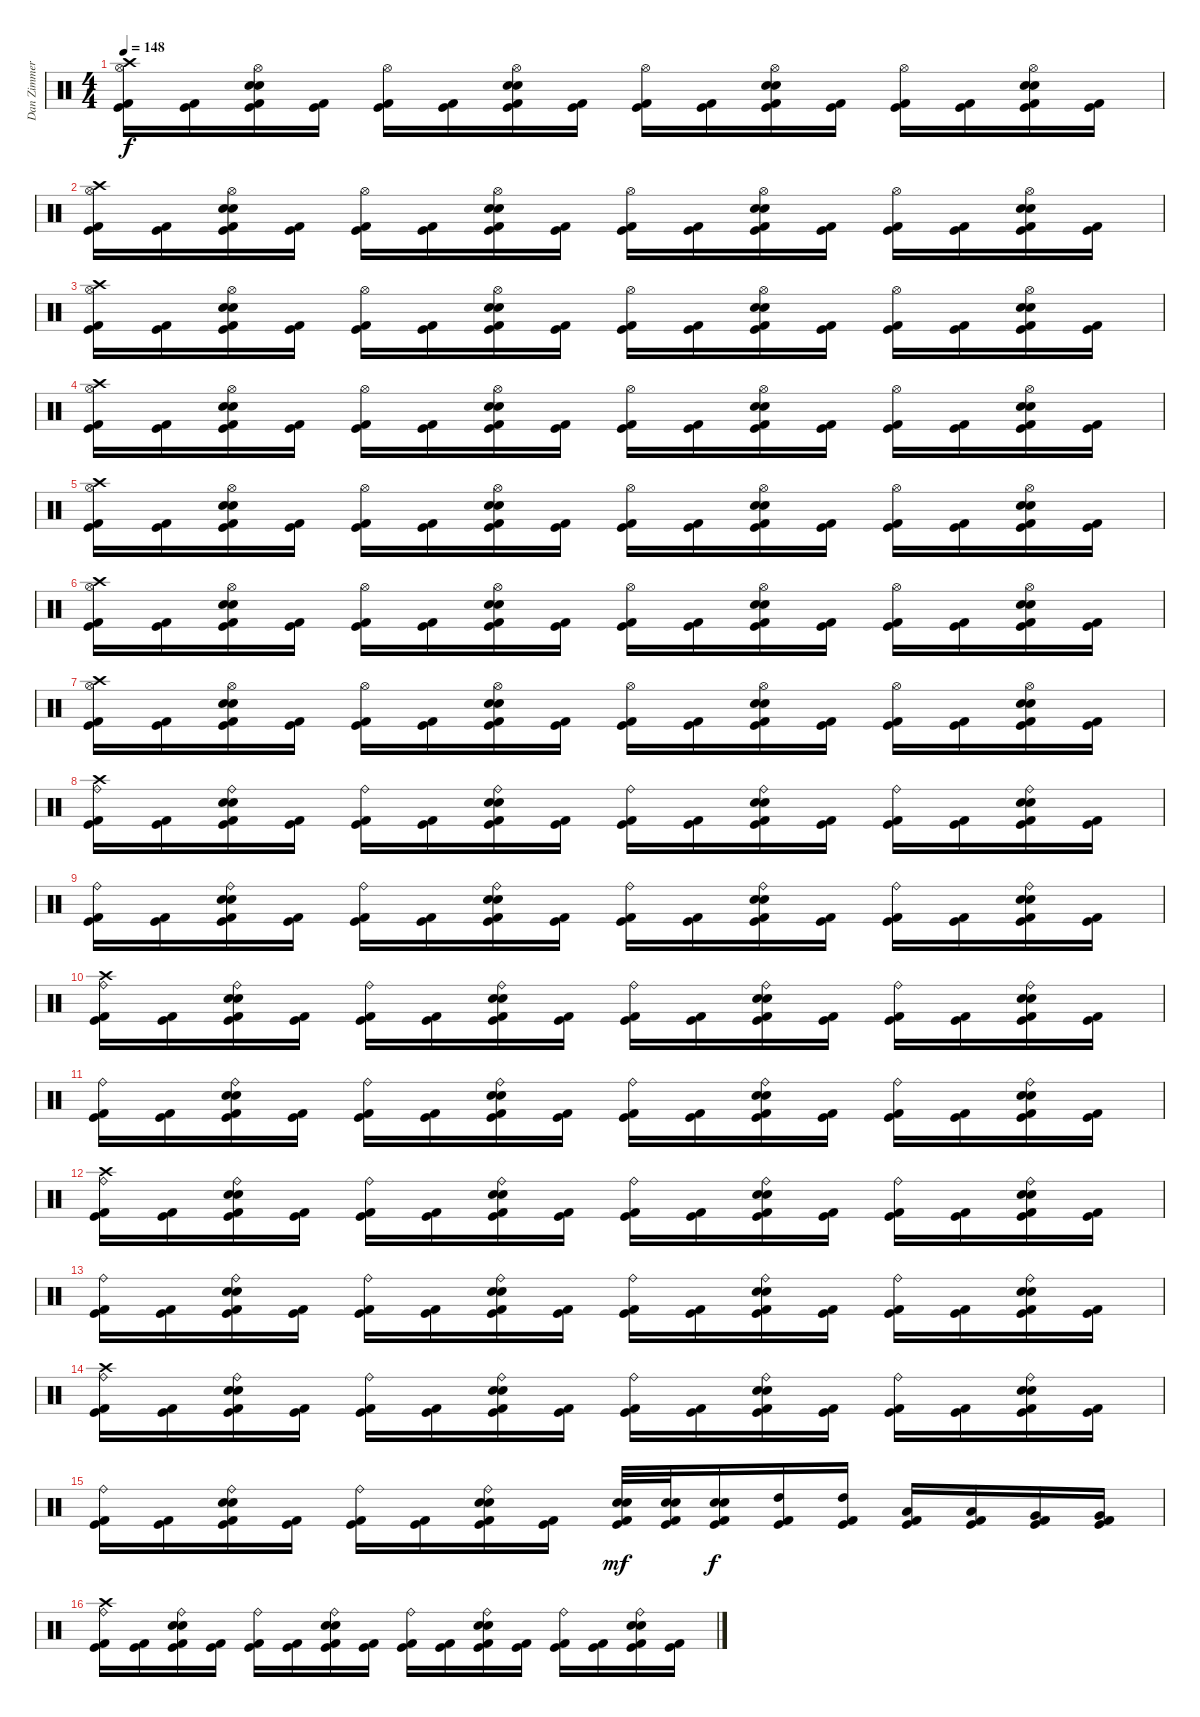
\track ("Dan Zimmerman<Drum>" "Dan Zimmer") {instrument percussion}
\staff {score}
\articulation defaults
\ts (4 4)
\tempo 148
\clef neutral
\ks c
("Hi-Hat (open)" "Crash high (hit)" "Kick (hit) 2" "Kick (hit)").16{dy f} ("Kick (hit) 2" "Kick (hit)").16 ("Hi-Hat (open)" "Snare (hit) 2" "Electric Snare (hit)" "Kick (hit) 2" "Kick (hit)").16 ("Kick (hit) 2" "Kick (hit)").16 ("Hi-Hat (open)" "Kick (hit) 2" "Kick (hit)").16 ("Kick (hit) 2" "Kick (hit)").16 ("Hi-Hat (open)" "Snare (hit) 2" "Electric Snare (hit)" "Kick (hit) 2" "Kick (hit)").16 ("Kick (hit) 2" "Kick (hit)").16 ("Hi-Hat (open)" "Kick (hit) 2" "Kick (hit)").16 ("Kick (hit) 2" "Kick (hit)").16 ("Hi-Hat (open)" "Snare (hit) 2" "Electric Snare (hit)" "Kick (hit) 2" "Kick (hit)").16 ("Kick (hit) 2" "Kick (hit)").16 ("Hi-Hat (open)" "Kick (hit) 2" "Kick (hit)").16 ("Kick (hit) 2" "Kick (hit)").16 ("Hi-Hat (open)" "Snare (hit) 2" "Electric Snare (hit)" "Kick (hit) 2" "Kick (hit)").16 ("Kick (hit) 2" "Kick (hit)").16 |
("Hi-Hat (open)" "Crash high (hit)" "Kick (hit) 2" "Kick (hit)").16 ("Kick (hit) 2" "Kick (hit)").16 ("Hi-Hat (open)" "Snare (hit) 2" "Electric Snare (hit)" "Kick (hit) 2" "Kick (hit)").16 ("Kick (hit) 2" "Kick (hit)").16 ("Hi-Hat (open)" "Kick (hit) 2" "Kick (hit)").16 ("Kick (hit) 2" "Kick (hit)").16 ("Hi-Hat (open)" "Snare (hit) 2" "Electric Snare (hit)" "Kick (hit) 2" "Kick (hit)").16 ("Kick (hit) 2" "Kick (hit)").16 ("Hi-Hat (open)" "Kick (hit) 2" "Kick (hit)").16 ("Kick (hit) 2" "Kick (hit)").16 ("Hi-Hat (open)" "Snare (hit) 2" "Electric Snare (hit)" "Kick (hit) 2" "Kick (hit)").16 ("Kick (hit) 2" "Kick (hit)").16 ("Hi-Hat (open)" "Kick (hit) 2" "Kick (hit)").16 ("Kick (hit) 2" "Kick (hit)").16 ("Hi-Hat (open)" "Snare (hit) 2" "Electric Snare (hit)" "Kick (hit) 2" "Kick (hit)").16 ("Kick (hit) 2" "Kick (hit)").16 |
("Hi-Hat (open)" "Crash high (hit)" "Kick (hit) 2" "Kick (hit)").16 ("Kick (hit) 2" "Kick (hit)").16 ("Hi-Hat (open)" "Snare (hit) 2" "Electric Snare (hit)" "Kick (hit) 2" "Kick (hit)").16 ("Kick (hit) 2" "Kick (hit)").16 ("Hi-Hat (open)" "Kick (hit) 2" "Kick (hit)").16 ("Kick (hit) 2" "Kick (hit)").16 ("Hi-Hat (open)" "Snare (hit) 2" "Electric Snare (hit)" "Kick (hit) 2" "Kick (hit)").16 ("Kick (hit) 2" "Kick (hit)").16 ("Hi-Hat (open)" "Kick (hit) 2" "Kick (hit)").16 ("Kick (hit) 2" "Kick (hit)").16 ("Hi-Hat (open)" "Snare (hit) 2" "Electric Snare (hit)" "Kick (hit) 2" "Kick (hit)").16 ("Kick (hit) 2" "Kick (hit)").16 ("Hi-Hat (open)" "Kick (hit) 2" "Kick (hit)").16 ("Kick (hit) 2" "Kick (hit)").16 ("Hi-Hat (open)" "Snare (hit) 2" "Electric Snare (hit)" "Kick (hit) 2" "Kick (hit)").16 ("Kick (hit) 2" "Kick (hit)").16 |
("Hi-Hat (open)" "Crash high (hit)" "Kick (hit) 2" "Kick (hit)").16 ("Kick (hit) 2" "Kick (hit)").16 ("Hi-Hat (open)" "Snare (hit) 2" "Electric Snare (hit)" "Kick (hit) 2" "Kick (hit)").16 ("Kick (hit) 2" "Kick (hit)").16 ("Hi-Hat (open)" "Kick (hit) 2" "Kick (hit)").16 ("Kick (hit) 2" "Kick (hit)").16 ("Hi-Hat (open)" "Snare (hit) 2" "Electric Snare (hit)" "Kick (hit) 2" "Kick (hit)").16 ("Kick (hit) 2" "Kick (hit)").16 ("Hi-Hat (open)" "Kick (hit) 2" "Kick (hit)").16 ("Kick (hit) 2" "Kick (hit)").16 ("Hi-Hat (open)" "Snare (hit) 2" "Electric Snare (hit)" "Kick (hit) 2" "Kick (hit)").16 ("Kick (hit) 2" "Kick (hit)").16 ("Hi-Hat (open)" "Kick (hit) 2" "Kick (hit)").16 ("Kick (hit) 2" "Kick (hit)").16 ("Hi-Hat (open)" "Snare (hit) 2" "Electric Snare (hit)" "Kick (hit) 2" "Kick (hit)").16 ("Kick (hit) 2" "Kick (hit)").16 |
("Hi-Hat (open)" "Crash high (hit)" "Kick (hit) 2" "Kick (hit)").16 ("Kick (hit) 2" "Kick (hit)").16 ("Hi-Hat (open)" "Snare (hit) 2" "Electric Snare (hit)" "Kick (hit) 2" "Kick (hit)").16 ("Kick (hit) 2" "Kick (hit)").16 ("Hi-Hat (open)" "Kick (hit) 2" "Kick (hit)").16 ("Kick (hit) 2" "Kick (hit)").16 ("Hi-Hat (open)" "Snare (hit) 2" "Electric Snare (hit)" "Kick (hit) 2" "Kick (hit)").16 ("Kick (hit) 2" "Kick (hit)").16 ("Hi-Hat (open)" "Kick (hit) 2" "Kick (hit)").16 ("Kick (hit) 2" "Kick (hit)").16 ("Hi-Hat (open)" "Snare (hit) 2" "Electric Snare (hit)" "Kick (hit) 2" "Kick (hit)").16 ("Kick (hit) 2" "Kick (hit)").16 ("Hi-Hat (open)" "Kick (hit) 2" "Kick (hit)").16 ("Kick (hit) 2" "Kick (hit)").16 ("Hi-Hat (open)" "Snare (hit) 2" "Electric Snare (hit)" "Kick (hit) 2" "Kick (hit)").16 ("Kick (hit) 2" "Kick (hit)").16 |
("Hi-Hat (open)" "Crash high (hit)" "Kick (hit) 2" "Kick (hit)").16 ("Kick (hit) 2" "Kick (hit)").16 ("Hi-Hat (open)" "Snare (hit) 2" "Electric Snare (hit)" "Kick (hit) 2" "Kick (hit)").16 ("Kick (hit) 2" "Kick (hit)").16 ("Hi-Hat (open)" "Kick (hit) 2" "Kick (hit)").16 ("Kick (hit) 2" "Kick (hit)").16 ("Hi-Hat (open)" "Snare (hit) 2" "Electric Snare (hit)" "Kick (hit) 2" "Kick (hit)").16 ("Kick (hit) 2" "Kick (hit)").16 ("Hi-Hat (open)" "Kick (hit) 2" "Kick (hit)").16 ("Kick (hit) 2" "Kick (hit)").16 ("Hi-Hat (open)" "Snare (hit) 2" "Electric Snare (hit)" "Kick (hit) 2" "Kick (hit)").16 ("Kick (hit) 2" "Kick (hit)").16 ("Hi-Hat (open)" "Kick (hit) 2" "Kick (hit)").16 ("Kick (hit) 2" "Kick (hit)").16 ("Hi-Hat (open)" "Snare (hit) 2" "Electric Snare (hit)" "Kick (hit) 2" "Kick (hit)").16 ("Kick (hit) 2" "Kick (hit)").16 |
("Hi-Hat (open)" "Crash high (hit)" "Kick (hit) 2" "Kick (hit)").16 ("Kick (hit) 2" "Kick (hit)").16 ("Hi-Hat (open)" "Snare (hit) 2" "Electric Snare (hit)" "Kick (hit) 2" "Kick (hit)").16 ("Kick (hit) 2" "Kick (hit)").16 ("Hi-Hat (open)" "Kick (hit) 2" "Kick (hit)").16 ("Kick (hit) 2" "Kick (hit)").16 ("Hi-Hat (open)" "Snare (hit) 2" "Electric Snare (hit)" "Kick (hit) 2" "Kick (hit)").16 ("Kick (hit) 2" "Kick (hit)").16 ("Hi-Hat (open)" "Kick (hit) 2" "Kick (hit)").16 ("Kick (hit) 2" "Kick (hit)").16 ("Hi-Hat (open)" "Snare (hit) 2" "Electric Snare (hit)" "Kick (hit) 2" "Kick (hit)").16 ("Kick (hit) 2" "Kick (hit)").16 ("Hi-Hat (open)" "Kick (hit) 2" "Kick (hit)").16 ("Kick (hit) 2" "Kick (hit)").16 ("Hi-Hat (open)" "Snare (hit) 2" "Electric Snare (hit)" "Kick (hit) 2" "Kick (hit)").16 ("Kick (hit) 2" "Kick (hit)").16 |
("Ride (bell)" "Crash high (hit)" "Kick (hit) 2" "Kick (hit)").16 ("Kick (hit) 2" "Kick (hit)").16 ("Ride (bell)" "Snare (hit) 2" "Electric Snare (hit)" "Kick (hit) 2" "Kick (hit)").16 ("Kick (hit) 2" "Kick (hit)").16 ("Ride (bell)" "Kick (hit) 2" "Kick (hit)").16 ("Kick (hit) 2" "Kick (hit)").16 ("Ride (bell)" "Snare (hit) 2" "Electric Snare (hit)" "Kick (hit) 2" "Kick (hit)").16 ("Kick (hit) 2" "Kick (hit)").16 ("Ride (bell)" "Kick (hit) 2" "Kick (hit)").16 ("Kick (hit) 2" "Kick (hit)").16 ("Ride (bell)" "Snare (hit) 2" "Electric Snare (hit)" "Kick (hit) 2" "Kick (hit)").16 ("Kick (hit) 2" "Kick (hit)").16 ("Ride (bell)" "Kick (hit) 2" "Kick (hit)").16 ("Kick (hit) 2" "Kick (hit)").16 ("Ride (bell)" "Snare (hit) 2" "Electric Snare (hit)" "Kick (hit) 2" "Kick (hit)").16 ("Kick (hit) 2" "Kick (hit)").16 |
("Ride (bell)" "Kick (hit) 2" "Kick (hit)").16 ("Kick (hit) 2" "Kick (hit)").16 ("Ride (bell)" "Snare (hit) 2" "Electric Snare (hit)" "Kick (hit) 2" "Kick (hit)").16 ("Kick (hit) 2" "Kick (hit)").16 ("Ride (bell)" "Kick (hit) 2" "Kick (hit)").16 ("Kick (hit) 2" "Kick (hit)").16 ("Ride (bell)" "Snare (hit) 2" "Electric Snare (hit)" "Kick (hit) 2" "Kick (hit)").16 ("Kick (hit) 2" "Kick (hit)").16 ("Ride (bell)" "Kick (hit) 2" "Kick (hit)").16 ("Kick (hit) 2" "Kick (hit)").16 ("Ride (bell)" "Snare (hit) 2" "Electric Snare (hit)" "Kick (hit) 2" "Kick (hit)").16 ("Kick (hit) 2" "Kick (hit)").16 ("Ride (bell)" "Kick (hit) 2" "Kick (hit)").16 ("Kick (hit) 2" "Kick (hit)").16 ("Ride (bell)" "Snare (hit) 2" "Electric Snare (hit)" "Kick (hit) 2" "Kick (hit)").16 ("Kick (hit) 2" "Kick (hit)").16 |
("Ride (bell)" "Crash high (hit)" "Kick (hit) 2" "Kick (hit)").16 ("Kick (hit) 2" "Kick (hit)").16 ("Ride (bell)" "Snare (hit) 2" "Electric Snare (hit)" "Kick (hit) 2" "Kick (hit)").16 ("Kick (hit) 2" "Kick (hit)").16 ("Ride (bell)" "Kick (hit) 2" "Kick (hit)").16 ("Kick (hit) 2" "Kick (hit)").16 ("Ride (bell)" "Snare (hit) 2" "Electric Snare (hit)" "Kick (hit) 2" "Kick (hit)").16 ("Kick (hit) 2" "Kick (hit)").16 ("Ride (bell)" "Kick (hit) 2" "Kick (hit)").16 ("Kick (hit) 2" "Kick (hit)").16 ("Ride (bell)" "Snare (hit) 2" "Electric Snare (hit)" "Kick (hit) 2" "Kick (hit)").16 ("Kick (hit) 2" "Kick (hit)").16 ("Ride (bell)" "Kick (hit) 2" "Kick (hit)").16 ("Kick (hit) 2" "Kick (hit)").16 ("Ride (bell)" "Snare (hit) 2" "Electric Snare (hit)" "Kick (hit) 2" "Kick (hit)").16 ("Kick (hit) 2" "Kick (hit)").16 |
("Ride (bell)" "Kick (hit) 2" "Kick (hit)").16 ("Kick (hit) 2" "Kick (hit)").16 ("Ride (bell)" "Snare (hit) 2" "Electric Snare (hit)" "Kick (hit) 2" "Kick (hit)").16 ("Kick (hit) 2" "Kick (hit)").16 ("Ride (bell)" "Kick (hit) 2" "Kick (hit)").16 ("Kick (hit) 2" "Kick (hit)").16 ("Ride (bell)" "Snare (hit) 2" "Electric Snare (hit)" "Kick (hit) 2" "Kick (hit)").16 ("Kick (hit) 2" "Kick (hit)").16 ("Ride (bell)" "Kick (hit) 2" "Kick (hit)").16 ("Kick (hit) 2" "Kick (hit)").16 ("Ride (bell)" "Snare (hit) 2" "Electric Snare (hit)" "Kick (hit) 2" "Kick (hit)").16 ("Kick (hit) 2" "Kick (hit)").16 ("Ride (bell)" "Kick (hit) 2" "Kick (hit)").16 ("Kick (hit) 2" "Kick (hit)").16 ("Ride (bell)" "Snare (hit) 2" "Electric Snare (hit)" "Kick (hit) 2" "Kick (hit)").16 ("Kick (hit) 2" "Kick (hit)").16 |
("Ride (bell)" "Crash high (hit)" "Kick (hit) 2" "Kick (hit)").16 ("Kick (hit) 2" "Kick (hit)").16 ("Ride (bell)" "Snare (hit) 2" "Electric Snare (hit)" "Kick (hit) 2" "Kick (hit)").16 ("Kick (hit) 2" "Kick (hit)").16 ("Ride (bell)" "Kick (hit) 2" "Kick (hit)").16 ("Kick (hit) 2" "Kick (hit)").16 ("Ride (bell)" "Snare (hit) 2" "Electric Snare (hit)" "Kick (hit) 2" "Kick (hit)").16 ("Kick (hit) 2" "Kick (hit)").16 ("Ride (bell)" "Kick (hit) 2" "Kick (hit)").16 ("Kick (hit) 2" "Kick (hit)").16 ("Ride (bell)" "Snare (hit) 2" "Electric Snare (hit)" "Kick (hit) 2" "Kick (hit)").16 ("Kick (hit) 2" "Kick (hit)").16 ("Ride (bell)" "Kick (hit) 2" "Kick (hit)").16 ("Kick (hit) 2" "Kick (hit)").16 ("Ride (bell)" "Snare (hit) 2" "Electric Snare (hit)" "Kick (hit) 2" "Kick (hit)").16 ("Kick (hit) 2" "Kick (hit)").16 |
("Ride (bell)" "Kick (hit) 2" "Kick (hit)").16 ("Kick (hit) 2" "Kick (hit)").16 ("Ride (bell)" "Snare (hit) 2" "Electric Snare (hit)" "Kick (hit) 2" "Kick (hit)").16 ("Kick (hit) 2" "Kick (hit)").16 ("Ride (bell)" "Kick (hit) 2" "Kick (hit)").16 ("Kick (hit) 2" "Kick (hit)").16 ("Ride (bell)" "Snare (hit) 2" "Electric Snare (hit)" "Kick (hit) 2" "Kick (hit)").16 ("Kick (hit) 2" "Kick (hit)").16 ("Ride (bell)" "Kick (hit) 2" "Kick (hit)").16 ("Kick (hit) 2" "Kick (hit)").16 ("Ride (bell)" "Snare (hit) 2" "Electric Snare (hit)" "Kick (hit) 2" "Kick (hit)").16 ("Kick (hit) 2" "Kick (hit)").16 ("Ride (bell)" "Kick (hit) 2" "Kick (hit)").16 ("Kick (hit) 2" "Kick (hit)").16 ("Ride (bell)" "Snare (hit) 2" "Electric Snare (hit)" "Kick (hit) 2" "Kick (hit)").16 ("Kick (hit) 2" "Kick (hit)").16 |
("Ride (bell)" "Crash high (hit)" "Kick (hit) 2" "Kick (hit)").16 ("Kick (hit) 2" "Kick (hit)").16 ("Ride (bell)" "Snare (hit) 2" "Electric Snare (hit)" "Kick (hit) 2" "Kick (hit)").16 ("Kick (hit) 2" "Kick (hit)").16 ("Ride (bell)" "Kick (hit) 2" "Kick (hit)").16 ("Kick (hit) 2" "Kick (hit)").16 ("Ride (bell)" "Snare (hit) 2" "Electric Snare (hit)" "Kick (hit) 2" "Kick (hit)").16 ("Kick (hit) 2" "Kick (hit)").16 ("Ride (bell)" "Kick (hit) 2" "Kick (hit)").16 ("Kick (hit) 2" "Kick (hit)").16 ("Ride (bell)" "Snare (hit) 2" "Electric Snare (hit)" "Kick (hit) 2" "Kick (hit)").16 ("Kick (hit) 2" "Kick (hit)").16 ("Ride (bell)" "Kick (hit) 2" "Kick (hit)").16 ("Kick (hit) 2" "Kick (hit)").16 ("Ride (bell)" "Snare (hit) 2" "Electric Snare (hit)" "Kick (hit) 2" "Kick (hit)").16 ("Kick (hit) 2" "Kick (hit)").16 |
("Ride (bell)" "Kick (hit) 2" "Kick (hit)").16 ("Kick (hit) 2" "Kick (hit)").16 ("Ride (bell)" "Snare (hit) 2" "Electric Snare (hit)" "Kick (hit) 2" "Kick (hit)").16 ("Kick (hit) 2" "Kick (hit)").16 ("Ride (bell)" "Kick (hit) 2" "Kick (hit)").16 ("Kick (hit) 2" "Kick (hit)").16 ("Ride (bell)" "Snare (hit) 2" "Electric Snare (hit)" "Kick (hit) 2" "Kick (hit)").16 ("Kick (hit) 2" "Kick (hit)").16 ("Snare (hit) 2" "Electric Snare (hit)" "Kick (hit) 2" "Kick (hit)").32{dy mf} ("Snare (hit) 2" "Electric Snare (hit)" "Kick (hit) 2" "Kick (hit)").32 ("Electric Snare (hit)" "Snare (hit) 2" "Kick (hit) 2" "Kick (hit)").16{dy f} ("High Tom (hit)" "Kick (hit) 2" "Kick (hit)").16 ("High Tom (hit)" "Kick (hit) 2" "Kick (hit)").16 ("Low Tom (hit)" "Kick (hit) 2" "Kick (hit)").16 ("Low Tom (hit)" "Kick (hit) 2" "Kick (hit)").16 ("Very Low Tom (hit)" "Kick (hit) 2" "Kick (hit)").16 ("Very Low Tom (hit)" "Kick (hit) 2" "Kick (hit)").16 |
("Ride (bell)" "Crash high (hit)" "Kick (hit) 2" "Kick (hit)").16 ("Kick (hit) 2" "Kick (hit)").16 ("Ride (bell)" "Snare (hit) 2" "Electric Snare (hit)" "Kick (hit) 2" "Kick (hit)").16 ("Kick (hit) 2" "Kick (hit)").16 ("Ride (bell)" "Kick (hit) 2" "Kick (hit)").16 ("Kick (hit) 2" "Kick (hit)").16 ("Ride (bell)" "Snare (hit) 2" "Electric Snare (hit)" "Kick (hit) 2" "Kick (hit)").16 ("Kick (hit) 2" "Kick (hit)").16 ("Ride (bell)" "Kick (hit) 2" "Kick (hit)").16 ("Kick (hit) 2" "Kick (hit)").16 ("Ride (bell)" "Snare (hit) 2" "Electric Snare (hit)" "Kick (hit) 2" "Kick (hit)").16 ("Kick (hit) 2" "Kick (hit)").16 ("Ride (bell)" "Kick (hit) 2" "Kick (hit)").16 ("Kick (hit) 2" "Kick (hit)").16 ("Ride (bell)" "Snare (hit) 2" "Electric Snare (hit)" "Kick (hit) 2" "Kick (hit)").16 ("Kick (hit) 2" "Kick (hit)").16
